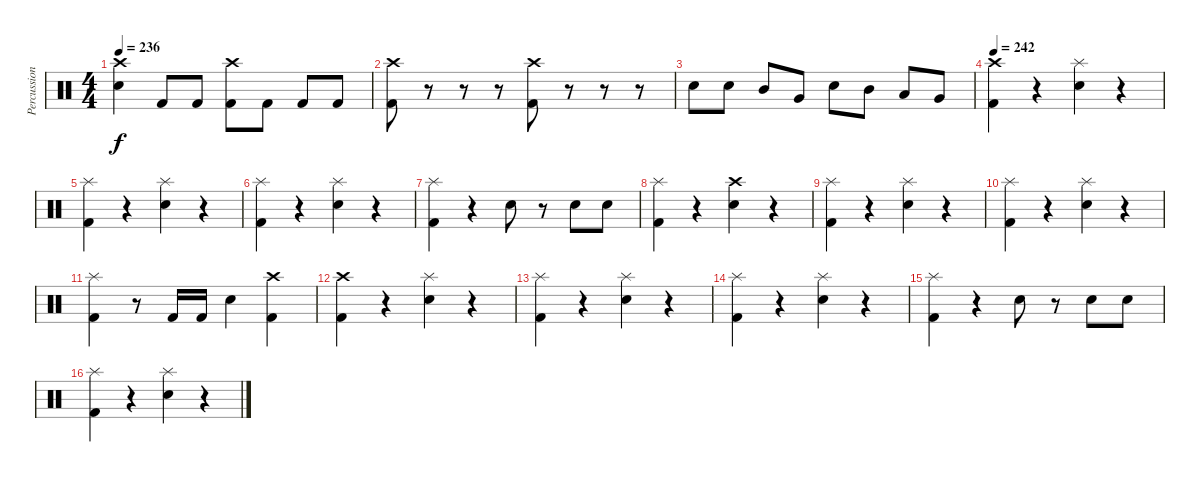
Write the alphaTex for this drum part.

\track ("Percussion" "Percussion") {instrument percussion}
\staff {score}
\articulation defaults
\ts (4 4)
\tempo 236
\clef neutral
\ks c
("Crash high (hit)" "Electric Snare (hit)").4{dy f} "Kick (hit) 2".8 "Kick (hit) 2".8 ("Crash high (hit)" "Kick (hit) 2").8 "Kick (hit) 2".8 "Kick (hit) 2".8 "Kick (hit) 2".8 |
("Crash high (hit)" "Kick (hit) 2").8 r.8 r.8 r.8 ("Crash high (hit)" "Kick (hit) 2").8 r.8 r.8 r.8 |
"Electric Snare (hit)".8 "Electric Snare (hit)".8 "Mid Tom (hit)".8 "Very Low Tom (hit)".8 "Electric Snare (hit)".8 "Mid Tom (hit)".8 "Low Tom (hit)".8 "Very Low Tom (hit)".8 |
\tempo 242
("Crash high (hit)" "Kick (hit) 2").4 r.4 ("Splash (hit)" "Electric Snare (hit)").4 r.4 |
("Splash (hit)" "Kick (hit) 2").4 r.4 ("Splash (hit)" "Electric Snare (hit)").4 r.4 |
("Splash (hit)" "Kick (hit) 2").4 r.4 ("Splash (hit)" "Electric Snare (hit)").4 r.4 |
("Splash (hit)" "Kick (hit) 2").4 r.4 "Electric Snare (hit)".8 r.8 "Electric Snare (hit)".8 "Electric Snare (hit)".8 |
("Splash (hit)" "Kick (hit) 2").4 r.4 ("Crash high (hit)" "Electric Snare (hit)").4 r.4 |
("Splash (hit)" "Kick (hit) 2").4 r.4 ("Splash (hit)" "Electric Snare (hit)").4 r.4 |
("Splash (hit)" "Kick (hit) 2").4 r.4 ("Splash (hit)" "Electric Snare (hit)").4 r.4 |
("Splash (hit)" "Kick (hit) 2").4 r.8 "Kick (hit) 2".16 "Kick (hit) 2".16 "Electric Snare (hit)".4 ("Crash high (hit)" "Kick (hit) 2").4 |
("Crash high (hit)" "Kick (hit) 2").4 r.4 ("Splash (hit)" "Electric Snare (hit)").4 r.4 |
("Splash (hit)" "Kick (hit) 2").4 r.4 ("Splash (hit)" "Electric Snare (hit)").4 r.4 |
("Splash (hit)" "Kick (hit) 2").4 r.4 ("Splash (hit)" "Electric Snare (hit)").4 r.4 |
("Splash (hit)" "Kick (hit) 2").4 r.4 "Electric Snare (hit)".8 r.8 "Electric Snare (hit)".8 "Electric Snare (hit)".8 |
("Splash (hit)" "Kick (hit) 2").4 r.4 ("Splash (hit)" "Electric Snare (hit)").4 r.4
